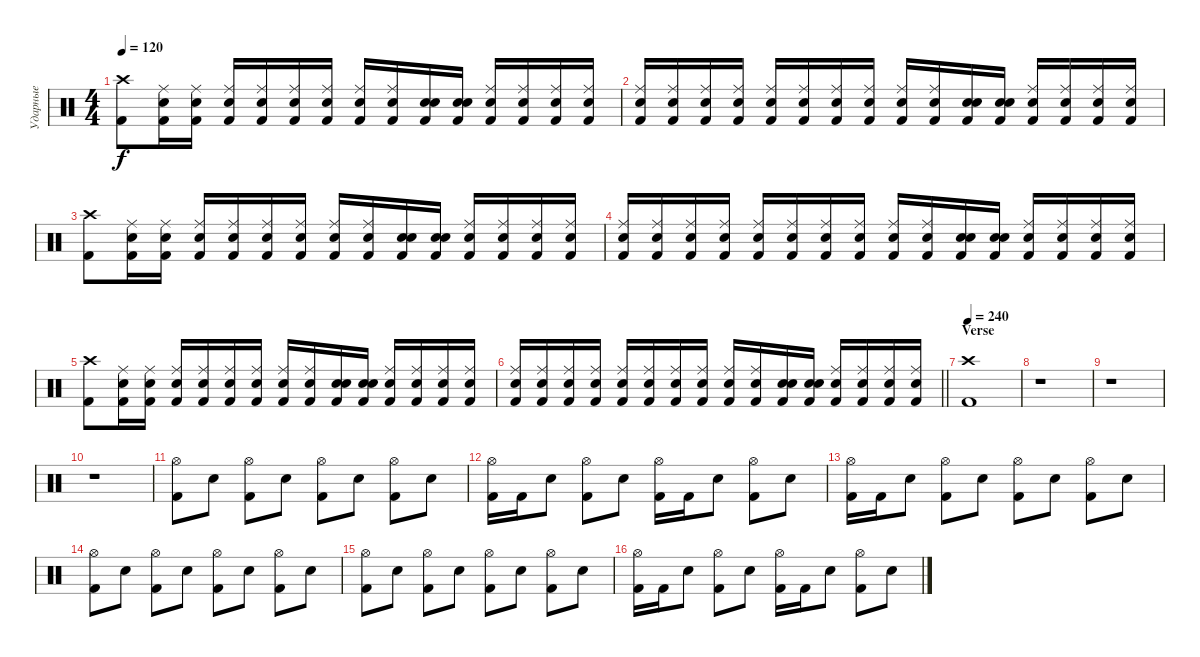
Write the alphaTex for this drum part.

\track ("Ударные" "Ударные") {instrument percussion}
\staff {score}
\articulation defaults
\ts (4 4)
\tempo 120
\clef neutral
\ks c
("Crash high (hit)" "Kick (hit) 2").8{dy f} ("Ride (middle)" "Electric Snare (hit)" "Kick (hit) 2").16 ("Ride (middle)" "Electric Snare (hit)" "Kick (hit) 2").16 ("Ride (middle)" "Electric Snare (hit)" "Kick (hit) 2").16 ("Ride (middle)" "Electric Snare (hit)" "Kick (hit) 2").16 ("Ride (middle)" "Electric Snare (hit)" "Kick (hit) 2").16 ("Ride (middle)" "Electric Snare (hit)" "Kick (hit) 2").16 ("Ride (middle)" "Electric Snare (hit)" "Kick (hit) 2").16 ("Ride (middle)" "Electric Snare (hit)" "Kick (hit) 2").16 ("Snare (hit)" "Electric Snare (hit)" "Kick (hit) 2").16 ("Snare (hit)" "Electric Snare (hit)" "Kick (hit) 2").16 ("Ride (middle)" "Electric Snare (hit)" "Kick (hit) 2").16 ("Ride (middle)" "Electric Snare (hit)" "Kick (hit) 2").16 ("Ride (middle)" "Electric Snare (hit)" "Kick (hit) 2").16 ("Ride (middle)" "Electric Snare (hit)" "Kick (hit) 2").16 |
("Ride (middle)" "Electric Snare (hit)" "Kick (hit) 2").16 ("Ride (middle)" "Electric Snare (hit)" "Kick (hit) 2").16 ("Ride (middle)" "Electric Snare (hit)" "Kick (hit) 2").16 ("Ride (middle)" "Electric Snare (hit)" "Kick (hit) 2").16 ("Ride (middle)" "Electric Snare (hit)" "Kick (hit) 2").16 ("Ride (middle)" "Electric Snare (hit)" "Kick (hit) 2").16 ("Ride (middle)" "Electric Snare (hit)" "Kick (hit) 2").16 ("Ride (middle)" "Electric Snare (hit)" "Kick (hit) 2").16 ("Ride (middle)" "Electric Snare (hit)" "Kick (hit) 2").16 ("Ride (middle)" "Electric Snare (hit)" "Kick (hit) 2").16 ("Snare (hit)" "Electric Snare (hit)" "Kick (hit) 2").16 ("Snare (hit)" "Electric Snare (hit)" "Kick (hit) 2").16 ("Ride (middle)" "Electric Snare (hit)" "Kick (hit) 2").16 ("Ride (middle)" "Electric Snare (hit)" "Kick (hit) 2").16 ("Ride (middle)" "Electric Snare (hit)" "Kick (hit) 2").16 ("Ride (middle)" "Electric Snare (hit)" "Kick (hit) 2").16 |
("Crash high (hit)" "Kick (hit) 2").8 ("Ride (middle)" "Electric Snare (hit)" "Kick (hit) 2").16 ("Ride (middle)" "Electric Snare (hit)" "Kick (hit) 2").16 ("Ride (middle)" "Electric Snare (hit)" "Kick (hit) 2").16 ("Ride (middle)" "Electric Snare (hit)" "Kick (hit) 2").16 ("Ride (middle)" "Electric Snare (hit)" "Kick (hit) 2").16 ("Ride (middle)" "Electric Snare (hit)" "Kick (hit) 2").16 ("Ride (middle)" "Electric Snare (hit)" "Kick (hit) 2").16 ("Ride (middle)" "Electric Snare (hit)" "Kick (hit) 2").16 ("Snare (hit)" "Electric Snare (hit)" "Kick (hit) 2").16 ("Snare (hit)" "Electric Snare (hit)" "Kick (hit) 2").16 ("Ride (middle)" "Electric Snare (hit)" "Kick (hit) 2").16 ("Ride (middle)" "Electric Snare (hit)" "Kick (hit) 2").16 ("Ride (middle)" "Electric Snare (hit)" "Kick (hit) 2").16 ("Ride (middle)" "Electric Snare (hit)" "Kick (hit) 2").16 |
("Ride (middle)" "Electric Snare (hit)" "Kick (hit) 2").16 ("Ride (middle)" "Electric Snare (hit)" "Kick (hit) 2").16 ("Ride (middle)" "Electric Snare (hit)" "Kick (hit) 2").16 ("Ride (middle)" "Electric Snare (hit)" "Kick (hit) 2").16 ("Ride (middle)" "Electric Snare (hit)" "Kick (hit) 2").16 ("Ride (middle)" "Electric Snare (hit)" "Kick (hit) 2").16 ("Ride (middle)" "Electric Snare (hit)" "Kick (hit) 2").16 ("Ride (middle)" "Electric Snare (hit)" "Kick (hit) 2").16 ("Ride (middle)" "Electric Snare (hit)" "Kick (hit) 2").16 ("Ride (middle)" "Electric Snare (hit)" "Kick (hit) 2").16 ("Snare (hit)" "Electric Snare (hit)" "Kick (hit) 2").16 ("Snare (hit)" "Electric Snare (hit)" "Kick (hit) 2").16 ("Ride (middle)" "Electric Snare (hit)" "Kick (hit) 2").16 ("Ride (middle)" "Electric Snare (hit)" "Kick (hit) 2").16 ("Ride (middle)" "Electric Snare (hit)" "Kick (hit) 2").16 ("Ride (middle)" "Electric Snare (hit)" "Kick (hit) 2").16 |
("Crash high (hit)" "Kick (hit) 2").8 ("Ride (middle)" "Electric Snare (hit)" "Kick (hit) 2").16 ("Ride (middle)" "Electric Snare (hit)" "Kick (hit) 2").16 ("Ride (middle)" "Electric Snare (hit)" "Kick (hit) 2").16 ("Ride (middle)" "Electric Snare (hit)" "Kick (hit) 2").16 ("Ride (middle)" "Electric Snare (hit)" "Kick (hit) 2").16 ("Ride (middle)" "Electric Snare (hit)" "Kick (hit) 2").16 ("Ride (middle)" "Electric Snare (hit)" "Kick (hit) 2").16 ("Ride (middle)" "Electric Snare (hit)" "Kick (hit) 2").16 ("Snare (hit)" "Electric Snare (hit)" "Kick (hit) 2").16 ("Snare (hit)" "Electric Snare (hit)" "Kick (hit) 2").16 ("Ride (middle)" "Electric Snare (hit)" "Kick (hit) 2").16 ("Ride (middle)" "Electric Snare (hit)" "Kick (hit) 2").16 ("Ride (middle)" "Electric Snare (hit)" "Kick (hit) 2").16 ("Ride (middle)" "Electric Snare (hit)" "Kick (hit) 2").16 |
\barLineRight lightlight
("Ride (middle)" "Electric Snare (hit)" "Kick (hit) 2").16 ("Ride (middle)" "Electric Snare (hit)" "Kick (hit) 2").16 ("Ride (middle)" "Electric Snare (hit)" "Kick (hit) 2").16 ("Ride (middle)" "Electric Snare (hit)" "Kick (hit) 2").16 ("Ride (middle)" "Electric Snare (hit)" "Kick (hit) 2").16 ("Ride (middle)" "Electric Snare (hit)" "Kick (hit) 2").16 ("Ride (middle)" "Electric Snare (hit)" "Kick (hit) 2").16 ("Ride (middle)" "Electric Snare (hit)" "Kick (hit) 2").16 ("Ride (middle)" "Electric Snare (hit)" "Kick (hit) 2").16 ("Ride (middle)" "Electric Snare (hit)" "Kick (hit) 2").16 ("Snare (hit)" "Electric Snare (hit)" "Kick (hit) 2").16 ("Snare (hit)" "Electric Snare (hit)" "Kick (hit) 2").16 ("Ride (middle)" "Electric Snare (hit)" "Kick (hit) 2").16 ("Ride (middle)" "Electric Snare (hit)" "Kick (hit) 2").16 ("Ride (middle)" "Electric Snare (hit)" "Kick (hit) 2").16 ("Ride (middle)" "Electric Snare (hit)" "Kick (hit) 2").16 |
\section ("" "Verse")
\tempo 240
("Crash high (hit)" "Kick (hit) 2").1 |
r.1 |
r.1 |
r.1 |
("Hi-Hat (open)" "Kick (hit) 2").8 "Electric Snare (hit)".8 ("Hi-Hat (open)" "Kick (hit) 2").8 "Electric Snare (hit)".8 ("Hi-Hat (open)" "Kick (hit) 2").8 "Electric Snare (hit)".8 ("Hi-Hat (open)" "Kick (hit) 2").8 "Electric Snare (hit)".8 |
("Hi-Hat (open)" "Kick (hit) 2").16 "Kick (hit) 2".16 "Electric Snare (hit)".8 ("Hi-Hat (open)" "Kick (hit) 2").8 "Electric Snare (hit)".8 ("Hi-Hat (open)" "Kick (hit) 2").16 "Kick (hit) 2".16 "Electric Snare (hit)".8 ("Hi-Hat (open)" "Kick (hit) 2").8 "Electric Snare (hit)".8 |
("Hi-Hat (open)" "Kick (hit) 2").16 "Kick (hit) 2".16 "Electric Snare (hit)".8 ("Hi-Hat (open)" "Kick (hit) 2").8 "Electric Snare (hit)".8 ("Hi-Hat (open)" "Kick (hit) 2").8 "Electric Snare (hit)".8 ("Hi-Hat (open)" "Kick (hit) 2").8 "Electric Snare (hit)".8 |
("Hi-Hat (open)" "Kick (hit) 2").8 "Electric Snare (hit)".8 ("Hi-Hat (open)" "Kick (hit) 2").8 "Electric Snare (hit)".8 ("Hi-Hat (open)" "Kick (hit) 2").8 "Electric Snare (hit)".8 ("Hi-Hat (open)" "Kick (hit) 2").8 "Electric Snare (hit)".8 |
("Hi-Hat (open)" "Kick (hit) 2").8 "Electric Snare (hit)".8 ("Hi-Hat (open)" "Kick (hit) 2").8 "Electric Snare (hit)".8 ("Hi-Hat (open)" "Kick (hit) 2").8 "Electric Snare (hit)".8 ("Hi-Hat (open)" "Kick (hit) 2").8 "Electric Snare (hit)".8 |
("Hi-Hat (open)" "Kick (hit) 2").16 "Kick (hit) 2".16 "Electric Snare (hit)".8 ("Hi-Hat (open)" "Kick (hit) 2").8 "Electric Snare (hit)".8 ("Hi-Hat (open)" "Kick (hit) 2").16 "Kick (hit) 2".16 "Electric Snare (hit)".8 ("Hi-Hat (open)" "Kick (hit) 2").8 "Electric Snare (hit)".8
